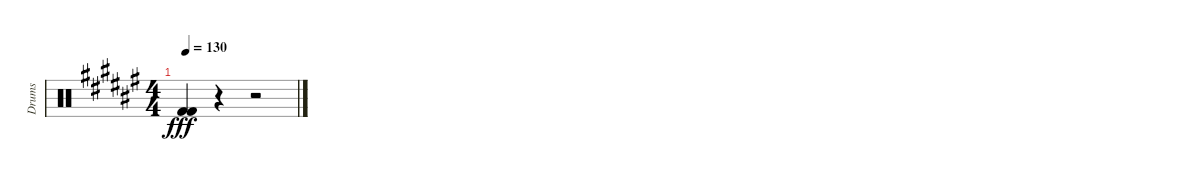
\track ("Drums" "Drums") {instrument percussion}
\staff {score}
\articulation defaults
\ts (4 4)
\tempo 130
\clef neutral
\ks d#minor
("Kick (hit) 2" "Kick (hit) 2").4{dy fff} r.4 r.2
